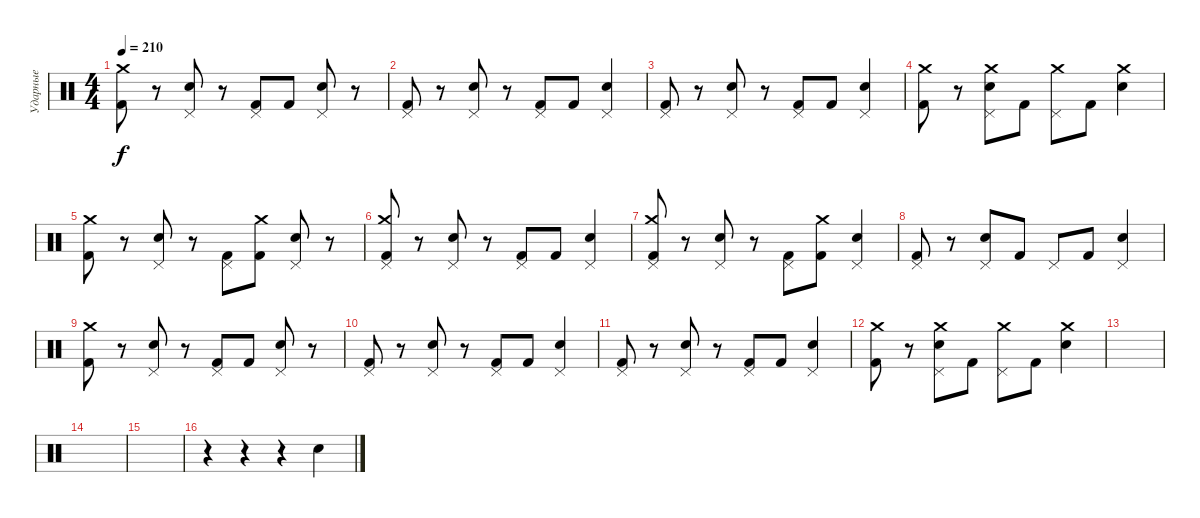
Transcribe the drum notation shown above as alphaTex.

\track ("Ударные" "Ударные") {instrument percussion}
\staff {score}
\articulation defaults
\ts (4 4)
\tempo 210
\clef neutral
\ks c
("Kick (hit) 2" "Crash medium (hit)").8{dy f} r.8 ("Pedal Hi-Hat (hit)" "Electric Snare (hit)").8 r.8 ("Kick (hit) 2" "Pedal Hi-Hat (hit)").8 "Kick (hit) 2".8 ("Electric Snare (hit)" "Pedal Hi-Hat (hit)").8 r.8 |
("Kick (hit) 2" "Pedal Hi-Hat (hit)").8 r.8 ("Pedal Hi-Hat (hit)" "Electric Snare (hit)").8 r.8 ("Kick (hit) 2" "Pedal Hi-Hat (hit)").8 "Kick (hit) 2".8 ("Electric Snare (hit)" "Pedal Hi-Hat (hit)").4 |
("Kick (hit) 2" "Pedal Hi-Hat (hit)").8 r.8 ("Pedal Hi-Hat (hit)" "Electric Snare (hit)").8 r.8 ("Kick (hit) 2" "Pedal Hi-Hat (hit)").8 "Kick (hit) 2".8 ("Electric Snare (hit)" "Pedal Hi-Hat (hit)").4 |
("Kick (hit) 2" "Crash medium (hit)").8 r.8 ("Pedal Hi-Hat (hit)" "Electric Snare (hit)" "Crash medium (hit)").8 "Kick (hit) 2".8 ("Pedal Hi-Hat (hit)" "Crash medium (hit)").8 "Kick (hit) 2".8 ("Electric Snare (hit)" "Crash medium (hit)").4 |
("Kick (hit) 2" "Crash medium (hit)").8 r.8 ("Pedal Hi-Hat (hit)" "Electric Snare (hit)").8 r.8 ("Kick (hit) 2" "Pedal Hi-Hat (hit)").8 ("Kick (hit) 2" "Crash medium (hit)").8 ("Electric Snare (hit)" "Pedal Hi-Hat (hit)").8 r.8 |
("Kick (hit) 2" "Pedal Hi-Hat (hit)" "Crash medium (hit)").8 r.8 ("Pedal Hi-Hat (hit)" "Electric Snare (hit)").8 r.8 ("Kick (hit) 2" "Pedal Hi-Hat (hit)").8 "Kick (hit) 2".8 ("Electric Snare (hit)" "Pedal Hi-Hat (hit)").4 |
("Kick (hit) 2" "Pedal Hi-Hat (hit)" "Crash medium (hit)").8 r.8 ("Pedal Hi-Hat (hit)" "Electric Snare (hit)").8 r.8 ("Kick (hit) 2" "Pedal Hi-Hat (hit)").8 ("Kick (hit) 2" "Crash medium (hit)").8 ("Electric Snare (hit)" "Pedal Hi-Hat (hit)").4 |
("Kick (hit) 2" "Pedal Hi-Hat (hit)").8 r.8 ("Pedal Hi-Hat (hit)" "Electric Snare (hit)").8 "Kick (hit) 2".8 "Pedal Hi-Hat (hit)".8 "Kick (hit) 2".8 ("Electric Snare (hit)" "Pedal Hi-Hat (hit)").4 |
("Kick (hit) 2" "Crash medium (hit)").8 r.8 ("Pedal Hi-Hat (hit)" "Electric Snare (hit)").8 r.8 ("Kick (hit) 2" "Pedal Hi-Hat (hit)").8 "Kick (hit) 2".8 ("Electric Snare (hit)" "Pedal Hi-Hat (hit)").8 r.8 |
("Kick (hit) 2" "Pedal Hi-Hat (hit)").8 r.8 ("Pedal Hi-Hat (hit)" "Electric Snare (hit)").8 r.8 ("Kick (hit) 2" "Pedal Hi-Hat (hit)").8 "Kick (hit) 2".8 ("Electric Snare (hit)" "Pedal Hi-Hat (hit)").4 |
("Kick (hit) 2" "Pedal Hi-Hat (hit)").8 r.8 ("Pedal Hi-Hat (hit)" "Electric Snare (hit)").8 r.8 ("Kick (hit) 2" "Pedal Hi-Hat (hit)").8 "Kick (hit) 2".8 ("Electric Snare (hit)" "Pedal Hi-Hat (hit)").4 |
("Kick (hit) 2" "Crash medium (hit)").8 r.8 ("Pedal Hi-Hat (hit)" "Electric Snare (hit)" "Crash medium (hit)").8 "Kick (hit) 2".8 ("Pedal Hi-Hat (hit)" "Crash medium (hit)").8 "Kick (hit) 2".8 ("Electric Snare (hit)" "Crash medium (hit)").4 |
|
|
|
r.4 r.4 r.4 "Electric Snare (hit)".4
